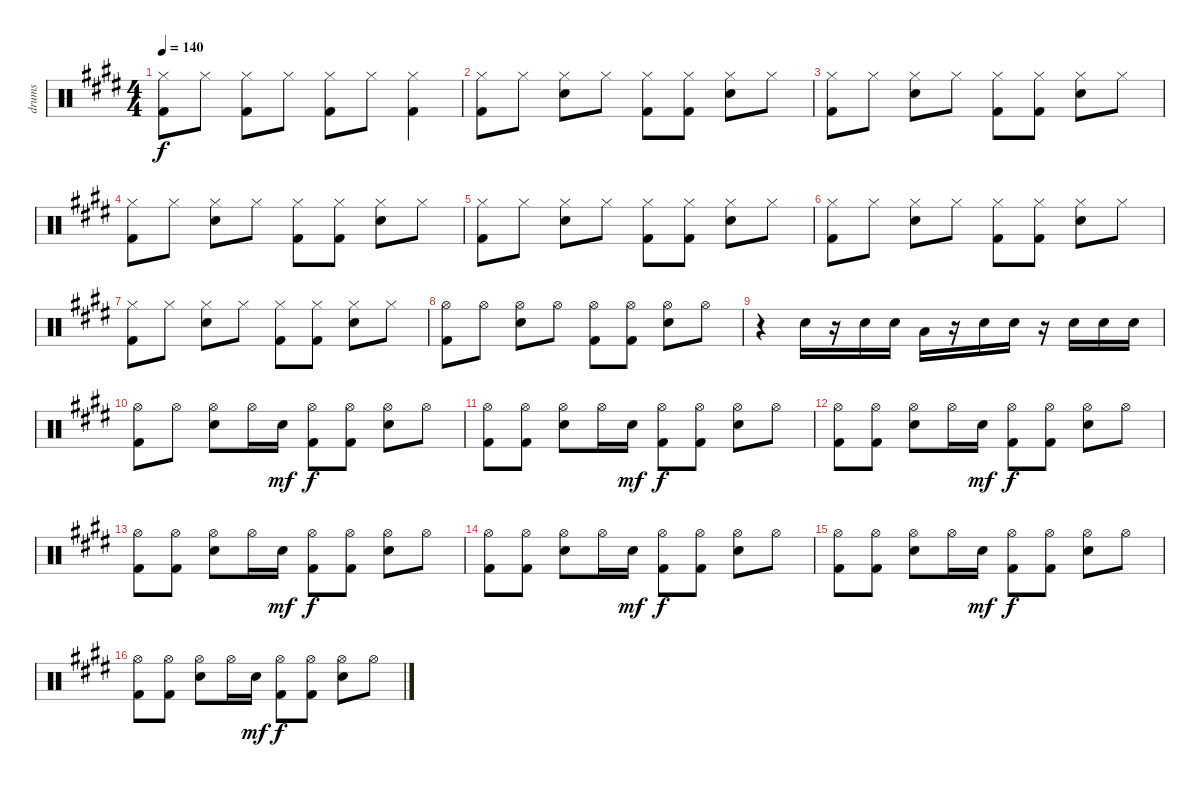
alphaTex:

\track ("drums" "drums") {instrument percussion}
\staff {score}
\articulation defaults
\ts (4 4)
\tempo 140
\clef neutral
\ks e
("Hi-Hat (closed)" "Kick (hit) 2").8{dy f} "Hi-Hat (closed)".8 ("Hi-Hat (closed)" "Kick (hit) 2").8 "Hi-Hat (closed)".8 ("Hi-Hat (closed)" "Kick (hit) 2").8 "Hi-Hat (closed)".8 ("Hi-Hat (closed)" "Kick (hit) 2").4 |
("Hi-Hat (closed)" "Kick (hit) 2").8 "Hi-Hat (closed)".8 ("Hi-Hat (closed)" "Snare (hit) 2").8 "Hi-Hat (closed)".8 ("Hi-Hat (closed)" "Kick (hit) 2").8 ("Hi-Hat (closed)" "Kick (hit) 2").8 ("Hi-Hat (closed)" "Snare (hit) 2").8 "Hi-Hat (closed)".8 |
("Hi-Hat (closed)" "Kick (hit) 2").8 "Hi-Hat (closed)".8 ("Hi-Hat (closed)" "Snare (hit) 2").8 "Hi-Hat (closed)".8 ("Hi-Hat (closed)" "Kick (hit) 2").8 ("Hi-Hat (closed)" "Kick (hit) 2").8 ("Hi-Hat (closed)" "Snare (hit) 2").8 "Hi-Hat (closed)".8 |
("Hi-Hat (closed)" "Kick (hit) 2").8 "Hi-Hat (closed)".8 ("Hi-Hat (closed)" "Snare (hit) 2").8 "Hi-Hat (closed)".8 ("Hi-Hat (closed)" "Kick (hit) 2").8 ("Hi-Hat (closed)" "Kick (hit) 2").8 ("Hi-Hat (closed)" "Snare (hit) 2").8 "Hi-Hat (closed)".8 |
("Hi-Hat (closed)" "Kick (hit) 2").8 "Hi-Hat (closed)".8 ("Hi-Hat (closed)" "Snare (hit) 2").8 "Hi-Hat (closed)".8 ("Hi-Hat (closed)" "Kick (hit) 2").8 ("Hi-Hat (closed)" "Kick (hit) 2").8 ("Hi-Hat (closed)" "Snare (hit) 2").8 "Hi-Hat (closed)".8 |
("Hi-Hat (closed)" "Kick (hit) 2").8 "Hi-Hat (closed)".8 ("Hi-Hat (closed)" "Snare (hit) 2").8 "Hi-Hat (closed)".8 ("Hi-Hat (closed)" "Kick (hit) 2").8 ("Hi-Hat (closed)" "Kick (hit) 2").8 ("Hi-Hat (closed)" "Snare (hit) 2").8 "Hi-Hat (closed)".8 |
("Hi-Hat (closed)" "Kick (hit) 2").8 "Hi-Hat (closed)".8 ("Hi-Hat (closed)" "Snare (hit) 2").8 "Hi-Hat (closed)".8 ("Hi-Hat (closed)" "Kick (hit) 2").8 ("Hi-Hat (closed)" "Kick (hit) 2").8 ("Hi-Hat (closed)" "Snare (hit) 2").8 "Hi-Hat (closed)".8 |
("Hi-Hat (open)" "Kick (hit) 2").8 "Hi-Hat (open)".8 ("Hi-Hat (open)" "Snare (hit) 2").8 "Hi-Hat (open)".8 ("Hi-Hat (open)" "Kick (hit) 2").8 ("Hi-Hat (open)" "Kick (hit) 2").8 ("Hi-Hat (open)" "Snare (hit) 2").8 "Hi-Hat (open)".8 |
r.4 "Snare (hit) 2".16 r.16 "Snare (hit) 2".16 "Snare (hit) 2".16 "Low Tom (hit)".16 r.16 "Snare (hit) 2".16 "Snare (hit) 2".16 r.16 "Snare (hit) 2".16 "Snare (hit) 2".16 "Snare (hit) 2".16 |
("Hi-Hat (open)" "Kick (hit) 2").8 "Hi-Hat (open)".8 ("Hi-Hat (open)" "Snare (hit) 2").8 "Hi-Hat (open)".16 "Snare (hit) 2".16{dy mf} ("Hi-Hat (open)" "Kick (hit) 2").8{dy f} ("Hi-Hat (open)" "Kick (hit) 2").8 ("Hi-Hat (open)" "Snare (hit) 2").8 "Hi-Hat (open)".8 |
("Hi-Hat (open)" "Kick (hit) 2").8 ("Hi-Hat (open)" "Kick (hit) 2").8 ("Hi-Hat (open)" "Snare (hit) 2").8 "Hi-Hat (open)".16 "Snare (hit) 2".16{dy mf} ("Hi-Hat (open)" "Kick (hit) 2").8{dy f} ("Hi-Hat (open)" "Kick (hit) 2").8 ("Hi-Hat (open)" "Snare (hit) 2").8 "Hi-Hat (open)".8 |
("Hi-Hat (open)" "Kick (hit) 2").8 ("Hi-Hat (open)" "Kick (hit) 2").8 ("Hi-Hat (open)" "Snare (hit) 2").8 "Hi-Hat (open)".16 "Snare (hit) 2".16{dy mf} ("Hi-Hat (open)" "Kick (hit) 2").8{dy f} ("Hi-Hat (open)" "Kick (hit) 2").8 ("Hi-Hat (open)" "Snare (hit) 2").8 "Hi-Hat (open)".8 |
("Hi-Hat (open)" "Kick (hit) 2").8 ("Hi-Hat (open)" "Kick (hit) 2").8 ("Hi-Hat (open)" "Snare (hit) 2").8 "Hi-Hat (open)".16 "Snare (hit) 2".16{dy mf} ("Hi-Hat (open)" "Kick (hit) 2").8{dy f} ("Hi-Hat (open)" "Kick (hit) 2").8 ("Hi-Hat (open)" "Snare (hit) 2").8 "Hi-Hat (open)".8 |
("Hi-Hat (open)" "Kick (hit) 2").8 ("Hi-Hat (open)" "Kick (hit) 2").8 ("Hi-Hat (open)" "Snare (hit) 2").8 "Hi-Hat (open)".16 "Snare (hit) 2".16{dy mf} ("Hi-Hat (open)" "Kick (hit) 2").8{dy f} ("Hi-Hat (open)" "Kick (hit) 2").8 ("Hi-Hat (open)" "Snare (hit) 2").8 "Hi-Hat (open)".8 |
("Hi-Hat (open)" "Kick (hit) 2").8 ("Hi-Hat (open)" "Kick (hit) 2").8 ("Hi-Hat (open)" "Snare (hit) 2").8 "Hi-Hat (open)".16 "Snare (hit) 2".16{dy mf} ("Hi-Hat (open)" "Kick (hit) 2").8{dy f} ("Hi-Hat (open)" "Kick (hit) 2").8 ("Hi-Hat (open)" "Snare (hit) 2").8 "Hi-Hat (open)".8 |
("Hi-Hat (open)" "Kick (hit) 2").8 ("Hi-Hat (open)" "Kick (hit) 2").8 ("Hi-Hat (open)" "Snare (hit) 2").8 "Hi-Hat (open)".16 "Snare (hit) 2".16{dy mf} ("Hi-Hat (open)" "Kick (hit) 2").8{dy f} ("Hi-Hat (open)" "Kick (hit) 2").8 ("Hi-Hat (open)" "Snare (hit) 2").8 "Hi-Hat (open)".8
